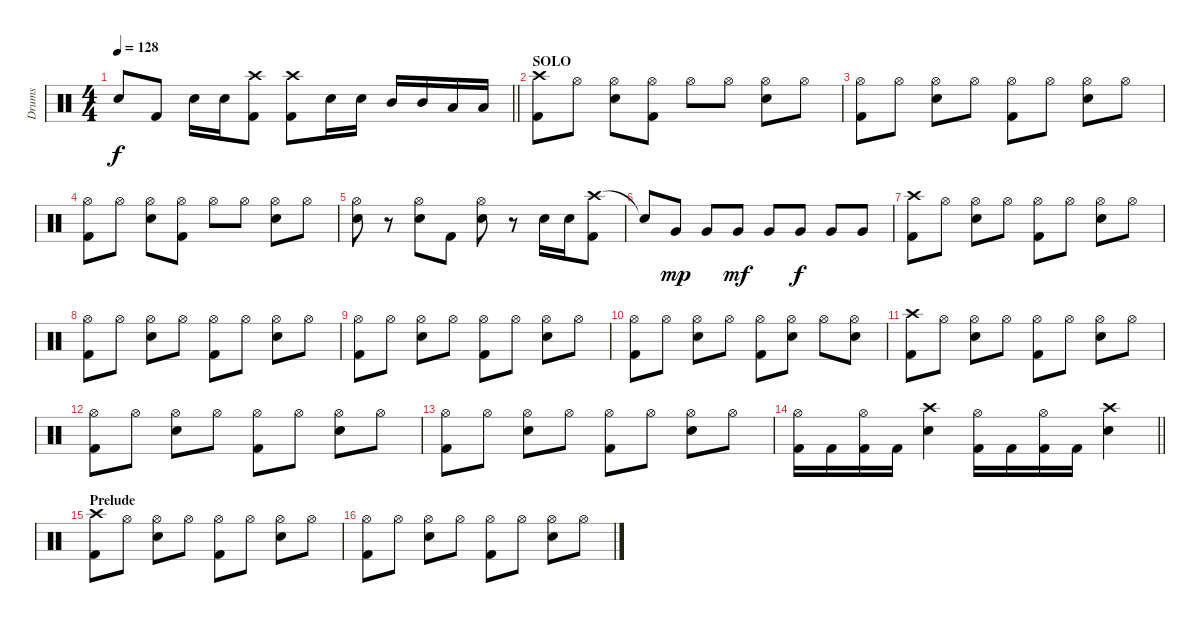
\track ("Drums" "Drums") {instrument percussion}
\staff {score}
\articulation defaults
\ts (4 4)
\tempo 128
\clef neutral
\barLineRight lightlight
\ks c "Snare (hit) 2".8{dy f} "Kick (hit) 2".8 "Snare (hit) 2".16 "Snare (hit) 2".16
("Crash high (hit)" "Kick (hit) 2").8 ("Crash high (hit)" "Kick (hit) 2").8 "Snare (hit) 2".16 "Snare (hit) 2".16 "Mid Tom (hit)".16 "Mid Tom (hit)".16 "Low Tom (hit)".16 "Low Tom (hit)".16 |
\section ("" "SOLO")
("Crash high (hit)" "Kick (hit) 2").8 "Hi-Hat (open)".8 ("Hi-Hat (open)" "Snare (hit) 2").8 ("Hi-Hat (open)" "Kick (hit) 2").8 "Hi-Hat (open)".8 "Hi-Hat (open)".8 ("Hi-Hat (open)" "Snare (hit) 2").8 "Hi-Hat (open)".8 |
("Hi-Hat (open)" "Kick (hit) 2").8 "Hi-Hat (open)".8 ("Hi-Hat (open)" "Snare (hit) 2").8 "Hi-Hat (open)".8 ("Hi-Hat (open)" "Kick (hit) 2").8 "Hi-Hat (open)".8 ("Hi-Hat (open)" "Snare (hit) 2").8 "Hi-Hat (open)".8 |
("Hi-Hat (open)" "Kick (hit) 2").8 "Hi-Hat (open)".8 ("Hi-Hat (open)" "Snare (hit) 2").8 ("Hi-Hat (open)" "Kick (hit) 2").8 "Hi-Hat (open)".8 "Hi-Hat (open)".8 ("Hi-Hat (open)" "Snare (hit) 2").8 "Hi-Hat (open)".8 |
("Hi-Hat (open)" "Snare (hit) 2").8 r.8 ("Hi-Hat (open)" "Snare (hit) 2").8 "Kick (hit) 2".8 ("Hi-Hat (open)" "Snare (hit) 2").8 r.8 "Snare (hit) 2".16 "Snare (hit) 2".16 ("Crash high (hit)" "Kick (hit) 2").8 |
"Snare (hit)"{t}.8 "Very Low Tom (hit)".8{dy mp} "Very Low Tom (hit)".8 "Very Low Tom (hit)".8{dy mf} "Very Low Tom (hit)".8 "Very Low Tom (hit)".8{dy f} "Very Low Tom (hit)".8 "Very Low Tom (hit)".8 |
("Crash high (hit)" "Kick (hit) 2").8 "Hi-Hat (open)".8 ("Hi-Hat (open)" "Snare (hit) 2").8 "Hi-Hat (open)".8 ("Hi-Hat (open)" "Kick (hit) 2").8 "Hi-Hat (open)".8 ("Hi-Hat (open)" "Snare (hit) 2").8 "Hi-Hat (open)".8 |
("Hi-Hat (open)" "Kick (hit) 2").8 "Hi-Hat (open)".8 ("Hi-Hat (open)" "Snare (hit) 2").8 "Hi-Hat (open)".8 ("Hi-Hat (open)" "Kick (hit) 2").8 "Hi-Hat (open)".8 ("Hi-Hat (open)" "Snare (hit) 2").8 "Hi-Hat (open)".8 |
("Hi-Hat (open)" "Kick (hit) 2").8 "Hi-Hat (open)".8 ("Hi-Hat (open)" "Snare (hit) 2").8 "Hi-Hat (open)".8 ("Hi-Hat (open)" "Kick (hit) 2").8 "Hi-Hat (open)".8 ("Hi-Hat (open)" "Snare (hit) 2").8 "Hi-Hat (open)".8 |
("Hi-Hat (open)" "Kick (hit) 2").8 "Hi-Hat (open)".8 ("Hi-Hat (open)" "Snare (hit) 2").8 "Hi-Hat (open)".8 ("Hi-Hat (open)" "Kick (hit) 2").8 ("Hi-Hat (open)" "Snare (hit) 2").8 "Hi-Hat (open)".8 ("Hi-Hat (open)" "Snare (hit) 2").8 |
("Crash high (hit)" "Kick (hit) 2").8 "Hi-Hat (open)".8 ("Hi-Hat (open)" "Snare (hit) 2").8 "Hi-Hat (open)".8 ("Hi-Hat (open)" "Kick (hit) 2").8 "Hi-Hat (open)".8 ("Hi-Hat (open)" "Snare (hit) 2").8 "Hi-Hat (open)".8 |
("Hi-Hat (open)" "Kick (hit) 2").8 "Hi-Hat (open)".8 ("Hi-Hat (open)" "Snare (hit) 2").8 "Hi-Hat (open)".8 ("Hi-Hat (open)" "Kick (hit) 2").8 "Hi-Hat (open)".8 ("Hi-Hat (open)" "Snare (hit) 2").8 "Hi-Hat (open)".8 |
("Hi-Hat (open)" "Kick (hit) 2").8 "Hi-Hat (open)".8 ("Hi-Hat (open)" "Snare (hit) 2").8 "Hi-Hat (open)".8 ("Hi-Hat (open)" "Kick (hit) 2").8 "Hi-Hat (open)".8 ("Hi-Hat (open)" "Snare (hit) 2").8 "Hi-Hat (open)".8 |
\barLineRight lightlight
("Hi-Hat (open)" "Kick (hit) 2").16 "Kick (hit) 2".16 ("Hi-Hat (open)" "Kick (hit) 2").16 "Kick (hit) 2".16 ("Crash high (hit)" "Snare (hit) 2").4 ("Hi-Hat (open)" "Kick (hit) 2").16 "Kick (hit) 2".16 ("Hi-Hat (open)" "Kick (hit) 2").16 "Kick (hit) 2".16 ("Crash high (hit)" "Snare (hit) 2").4 |
\section ("" "Prelude")
("Crash high (hit)" "Kick (hit) 2").8 "Hi-Hat (open)".8 ("Hi-Hat (open)" "Snare (hit) 2").8 "Hi-Hat (open)".8 ("Hi-Hat (open)" "Kick (hit) 2").8 "Hi-Hat (open)".8 ("Hi-Hat (open)" "Snare (hit) 2").8 "Hi-Hat (open)".8 |
("Hi-Hat (open)" "Kick (hit) 2").8 "Hi-Hat (open)".8 ("Hi-Hat (open)" "Snare (hit) 2").8 "Hi-Hat (open)".8 ("Hi-Hat (open)" "Kick (hit) 2").8 "Hi-Hat (open)".8 ("Hi-Hat (open)" "Snare (hit) 2").8 "Hi-Hat (open)".8
